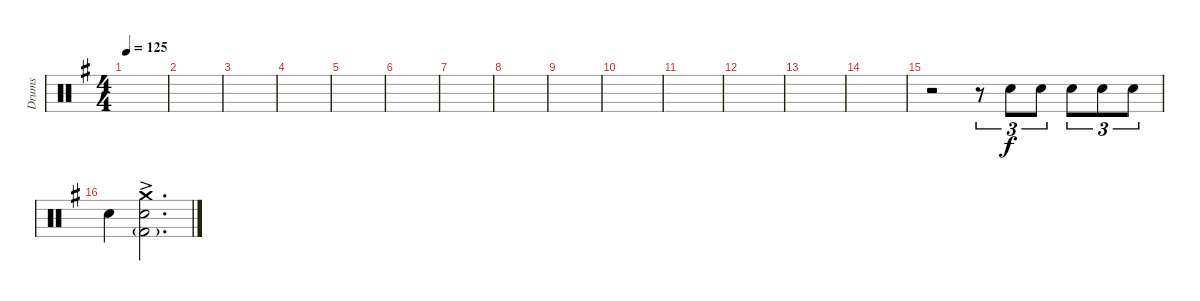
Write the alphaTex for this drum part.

\defaultSystemsLayout 4
\bracketExtendMode groupsimilarinstruments
\otherSystemsTrackNameOrientation horizontal
\track ("Drumkit" "Drums") {instrument percussion}
\staff {score}
\articulation defaults
\ts (4 4)
\tempo 125
\clef neutral
\scale
0.333333
\ks g
|
\scale
0.333333 |
\scale
0.333333 |
\scale
0.333333 |
\scale
0.333333 |
\scale
0.333333 |
\scale
0.333333 |
\scale
0.333333 |
\scale
0.333333 |
\scale
0.333333 |
\scale
0.333333 |
\scale
0.333333 |
\scale
0.333333 |
\scale
0.333333 |
\scale
0.333333 r.2{beam Down} r.8{tu (3 2) beam Down} "Snare (hit) 2"{acc forcenatural}.8{tu (3 2) beam Down} "Snare (hit) 2"{acc forcenatural}.8{tu (3 2) beam Down} "Snare (hit) 2"{acc forcenatural}.8{tu (3 2) beam Down} "Snare (hit) 2"{acc forcenatural}.8{tu (3 2) beam Down} "Snare (hit) 2"{acc forcenatural}.8{tu (3 2) beam Down} |
\scale
0.333333 "Snare (hit) 2"{acc forcenatural}.4{beam Down} ("Snare (hit) 2"{acc forcenatural} "Kick (hit) 2"{g acc forcenatural} "Crash medium (hit)"{ac acc forcenatural}).2{d beam Down}
